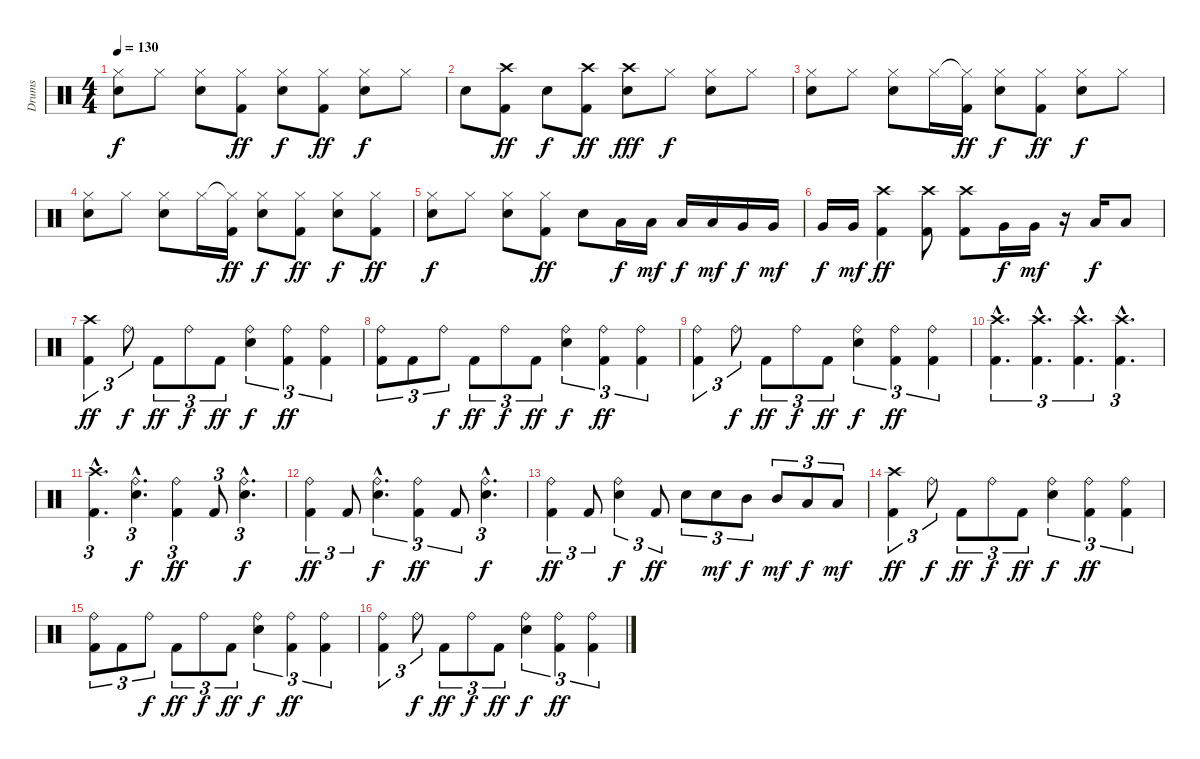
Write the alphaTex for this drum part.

\track ("Drums" "Drums") {instrument percussion}
\staff {score}
\articulation defaults
\ts (4 4)
\tempo 130
\clef neutral
\ks c
("Hi-Hat (closed)" "Snare (hit) 2").8{dy f} "Hi-Hat (closed)".8 ("Hi-Hat (closed)" "Snare (hit) 2").8 ("Hi-Hat (closed)" "Kick (hit) 2").8{dy ff} ("Hi-Hat (closed)" "Snare (hit) 2").8{dy f} ("Hi-Hat (closed)" "Kick (hit) 2").8{dy ff} ("Hi-Hat (closed)" "Snare (hit) 2").8{dy f} "Hi-Hat (closed)".8 |
"Snare (hit) 2".8 ("Crash high (hit)" "Kick (hit) 2").8{dy ff} "Snare (hit) 2".8{dy f} ("Crash high (hit)" "Kick (hit) 2").8{dy ff} ("Crash high (hit)" "Snare (hit) 2").8{dy fff} "Hi-Hat (closed)".8{dy f} ("Hi-Hat (closed)" "Snare (hit) 2").8 "Hi-Hat (closed)".8 |
("Hi-Hat (closed)" "Snare (hit) 2").8 "Hi-Hat (closed)".8 ("Hi-Hat (closed)" "Snare (hit) 2").8 "Hi-Hat (closed)".16 ("Hi-Hat (closed)"{t} "Kick (hit) 2").16{dy ff} ("Hi-Hat (closed)" "Snare (hit) 2").8{dy f} ("Hi-Hat (closed)" "Kick (hit) 2").8{dy ff} ("Hi-Hat (closed)" "Snare (hit) 2").8{dy f} "Hi-Hat (closed)".8 |
("Hi-Hat (closed)" "Snare (hit) 2").8 "Hi-Hat (closed)".8 ("Hi-Hat (closed)" "Snare (hit) 2").8 "Hi-Hat (closed)".16 ("Hi-Hat (closed)"{t} "Kick (hit) 2").16{dy ff} ("Hi-Hat (closed)" "Snare (hit) 2").8{dy f} ("Hi-Hat (closed)" "Kick (hit) 2").8{dy ff} ("Hi-Hat (closed)" "Snare (hit) 2").8{dy f} ("Hi-Hat (closed)" "Kick (hit) 2").8{dy ff} |
("Hi-Hat (closed)" "Snare (hit) 2").8{dy f} "Hi-Hat (closed)".8 ("Hi-Hat (closed)" "Snare (hit) 2").8 ("Hi-Hat (closed)" "Kick (hit) 2").8{dy ff} "Snare (hit) 2".8 "Low Tom (hit)".16{dy f} "Low Tom (hit)".16{dy mf} "Low Tom (hit)".16{dy f} "Low Tom (hit)".16{dy mf} "Very Low Tom (hit)".16{dy f} "Very Low Tom (hit)".16{dy mf} |
"Very Low Tom (hit)".16{dy f} "Very Low Tom (hit)".16{dy mf} ("Crash high (hit)" "Kick (hit) 2").4{dy ff} ("Crash high (hit)" "Kick (hit) 2").8 ("Crash high (hit)" "Kick (hit) 2").8 "Very Low Tom (hit)".16{dy f} "Very Low Tom (hit)".16{dy mf} r.16 "Low Floor Tom (hit)".16{dy f} "Low Floor Tom (hit)".8 |
("Crash high (hit)" "Kick (hit) 2").4{tu (3 2) dy ff} "Ride (bell)".8{tu (3 2) dy f} "Kick (hit) 2".8{tu (3 2) dy ff} "Ride (bell)".8{tu (3 2) dy f} "Kick (hit) 2".8{tu (3 2) dy ff} ("Ride (bell)" "Snare (hit) 2").4{tu (3 2) dy f} ("Ride (bell)" "Kick (hit) 2").4{tu (3 2) dy ff} ("Ride (bell)" "Kick (hit) 2").4{tu (3 2)} |
("Ride (bell)" "Kick (hit) 2").8{tu (3 2)} "Kick (hit) 2".8{tu (3 2)} "Ride (bell)".8{tu (3 2) dy f} "Kick (hit) 2".8{tu (3 2) dy ff} "Ride (bell)".8{tu (3 2) dy f} "Kick (hit) 2".8{tu (3 2) dy ff} ("Ride (bell)" "Snare (hit) 2").4{tu (3 2) dy f} ("Ride (bell)" "Kick (hit) 2").4{tu (3 2) dy ff} ("Ride (bell)" "Kick (hit) 2").4{tu (3 2)} |
("Ride (bell)" "Kick (hit) 2").4{tu (3 2)} "Ride (bell)".8{tu (3 2) dy f} "Kick (hit) 2".8{tu (3 2) dy ff} "Ride (bell)".8{tu (3 2) dy f} "Kick (hit) 2".8{tu (3 2) dy ff} ("Ride (bell)" "Snare (hit) 2").4{tu (3 2) dy f} ("Ride (bell)" "Kick (hit) 2").4{tu (3 2) dy ff} ("Ride (bell)" "Kick (hit) 2").4{tu (3 2)} |
("Crash high (hit)"{hac} "Kick (hit) 2"{hac}).4{d tu (3 2)} ("Crash high (hit)"{hac} "Kick (hit) 2"{hac}).4{d tu (3 2)} ("Crash high (hit)"{hac} "Kick (hit) 2"{hac}).4{d tu (3 2)} ("Crash high (hit)"{hac} "Kick (hit) 2"{hac}).4{d tu (3 2)} |
("Crash high (hit)"{hac} "Kick (hit) 2"{hac}).4{d tu (3 2)} ("Ride (bell)"{hac} "Snare (hit) 2"{hac}).4{d tu (3 2) dy f} ("Ride (bell)" "Kick (hit) 2").4{tu (3 2) dy ff} "Kick (hit) 2".8{tu (3 2)} ("Ride (bell)"{hac} "Snare (hit) 2"{hac}).4{d tu (3 2) dy f} |
("Ride (bell)" "Kick (hit) 2").4{tu (3 2) dy ff} "Kick (hit) 2".8{tu (3 2)} ("Ride (bell)"{hac} "Snare (hit) 2"{hac}).4{d tu (3 2) dy f} ("Ride (bell)" "Kick (hit) 2").4{tu (3 2) dy ff} "Kick (hit) 2".8{tu (3 2)} ("Ride (bell)"{hac} "Snare (hit) 2"{hac}).4{d tu (3 2) dy f} |
("Ride (bell)" "Kick (hit) 2").4{tu (3 2) dy ff} "Kick (hit) 2".8{tu (3 2)} ("Ride (bell)" "Snare (hit) 2").4{tu (3 2) dy f} "Kick (hit) 2".8{tu (3 2) dy ff} "Snare (hit) 2".8{tu (3 2)} "Snare (hit) 2".8{tu (3 2) dy mf} "Mid Tom (hit)".8{tu (3 2) dy f} "Mid Tom (hit)".8{tu (3 2) dy mf} "Low Tom (hit)".8{tu (3 2) dy f} "Low Tom (hit)".8{tu (3 2) dy mf} |
("Crash high (hit)" "Kick (hit) 2").4{tu (3 2) dy ff} "Ride (bell)".8{tu (3 2) dy f} "Kick (hit) 2".8{tu (3 2) dy ff} "Ride (bell)".8{tu (3 2) dy f} "Kick (hit) 2".8{tu (3 2) dy ff} ("Ride (bell)" "Snare (hit) 2").4{tu (3 2) dy f} ("Ride (bell)" "Kick (hit) 2").4{tu (3 2) dy ff} ("Ride (bell)" "Kick (hit) 2").4{tu (3 2)} |
("Ride (bell)" "Kick (hit) 2").8{tu (3 2)} "Kick (hit) 2".8{tu (3 2)} "Ride (bell)".8{tu (3 2) dy f} "Kick (hit) 2".8{tu (3 2) dy ff} "Ride (bell)".8{tu (3 2) dy f} "Kick (hit) 2".8{tu (3 2) dy ff} ("Ride (bell)" "Snare (hit) 2").4{tu (3 2) dy f} ("Ride (bell)" "Kick (hit) 2").4{tu (3 2) dy ff} ("Ride (bell)" "Kick (hit) 2").4{tu (3 2)} |
("Ride (bell)" "Kick (hit) 2").4{tu (3 2)} "Ride (bell)".8{tu (3 2) dy f} "Kick (hit) 2".8{tu (3 2) dy ff} "Ride (bell)".8{tu (3 2) dy f} "Kick (hit) 2".8{tu (3 2) dy ff} ("Ride (bell)" "Snare (hit) 2").4{tu (3 2) dy f} ("Ride (bell)" "Kick (hit) 2").4{tu (3 2) dy ff} ("Ride (bell)" "Kick (hit) 2").4{tu (3 2)}
